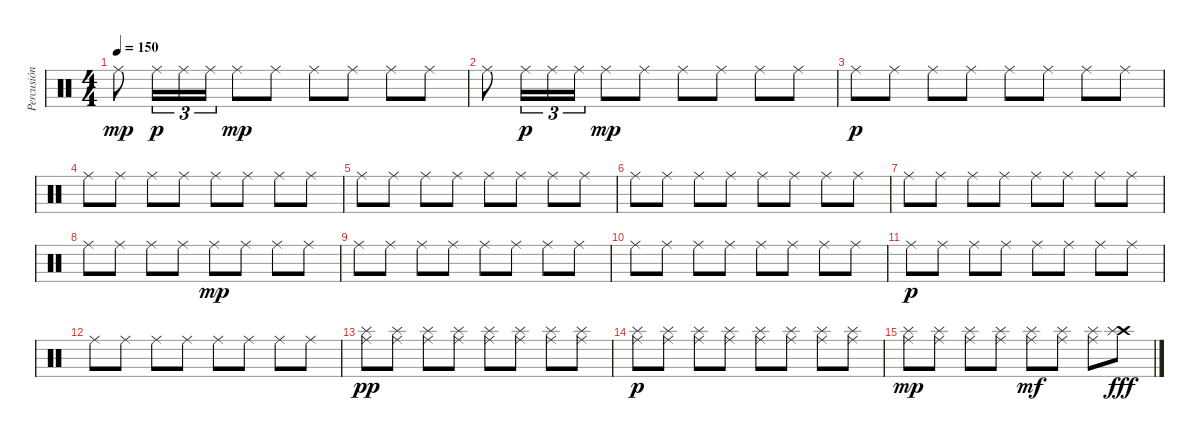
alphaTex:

\track ("Percusión" "Percusión") {instrument percussion}
\staff {score}
\articulation defaults
\ts (4 4)
\tempo 150
\clef neutral
\ks c "Ride (middle)".8{dy mp} "Ride (middle)".16{tu (3 2) dy p} "Ride (middle)".16{tu (3 2)} "Ride (middle)".16{tu (3 2)} "Ride (middle)".8{dy mp} "Ride (middle)".8 "Ride (middle)".8 "Ride (middle)".8 "Ride (middle)".8 "Ride (middle)".8
|
"Ride (middle)".8 "Ride (middle)".16{tu (3 2) dy p} "Ride (middle)".16{tu (3 2)} "Ride (middle)".16{tu (3 2)} "Ride (middle)".8{dy mp} "Ride (middle)".8 "Ride (middle)".8 "Ride (middle)".8 "Ride (middle)".8 "Ride (middle)".8 |
"Ride (middle)".8{dy p} "Ride (middle)".8 "Ride (middle)".8 "Ride (middle)".8 "Ride (middle)".8 "Ride (middle)".8 "Ride (middle)".8 "Ride (middle)".8 |
"Ride (middle)".8 "Ride (middle)".8 "Ride (middle)".8 "Ride (middle)".8 "Ride (middle)".8 "Ride (middle)".8 "Ride (middle)".8 "Ride (middle)".8 |
"Ride (middle)".8 "Ride (middle)".8 "Ride (middle)".8 "Ride (middle)".8 "Ride (middle)".8 "Ride (middle)".8 "Ride (middle)".8 "Ride (middle)".8 |
"Ride (middle)".8 "Ride (middle)".8 "Ride (middle)".8 "Ride (middle)".8 "Ride (middle)".8 "Ride (middle)".8 "Ride (middle)".8 "Ride (middle)".8 |
"Ride (middle)".8 "Ride (middle)".8 "Ride (middle)".8 "Ride (middle)".8 "Ride (middle)".8 "Ride (middle)".8 "Ride (middle)".8 "Ride (middle)".8 |
"Ride (middle)".8 "Ride (middle)".8 "Ride (middle)".8 "Ride (middle)".8 "Ride (middle)".8{dy mp} "Ride (middle)".8 "Ride (middle)".8 "Ride (middle)".8 |
"Ride (middle)".8 "Ride (middle)".8 "Ride (middle)".8 "Ride (middle)".8 "Ride (middle)".8 "Ride (middle)".8 "Ride (middle)".8 "Ride (middle)".8 |
"Ride (middle)".8 "Ride (middle)".8 "Ride (middle)".8 "Ride (middle)".8 "Ride (middle)".8 "Ride (middle)".8 "Ride (middle)".8 "Ride (middle)".8 |
"Ride (middle)".8{dy p} "Ride (middle)".8 "Ride (middle)".8 "Ride (middle)".8 "Ride (middle)".8 "Ride (middle)".8 "Ride (middle)".8 "Ride (middle)".8 |
"Ride (middle)".8 "Ride (middle)".8 "Ride (middle)".8 "Ride (middle)".8 "Ride (middle)".8 "Ride (middle)".8 "Ride (middle)".8 "Ride (middle)".8 |
("Ride (middle)" "Splash (hit)").8{dy pp} ("Ride (middle)" "Splash (hit)").8 ("Ride (middle)" "Splash (hit)").8 ("Ride (middle)" "Splash (hit)").8 ("Ride (middle)" "Splash (hit)").8 ("Ride (middle)" "Splash (hit)").8 ("Ride (middle)" "Splash (hit)").8 ("Ride (middle)" "Splash (hit)").8 |
("Ride (middle)" "Splash (hit)").8{dy p} ("Ride (middle)" "Splash (hit)").8 ("Ride (middle)" "Splash (hit)").8 ("Ride (middle)" "Splash (hit)").8 ("Ride (middle)" "Splash (hit)").8 ("Ride (middle)" "Splash (hit)").8 ("Ride (middle)" "Splash (hit)").8 ("Ride (middle)" "Splash (hit)").8 |
("Ride (middle)" "Splash (hit)").8{dy mp} ("Ride (middle)" "Splash (hit)").8 ("Ride (middle)" "Splash (hit)").8 ("Ride (middle)" "Splash (hit)").8 ("Ride (middle)" "Splash (hit)").8{dy mf} ("Ride (middle)" "Splash (hit)").8 ("Ride (middle)" "Splash (hit)").8 ("Crash high (hit)" "Splash (hit)").8{dy fff}
